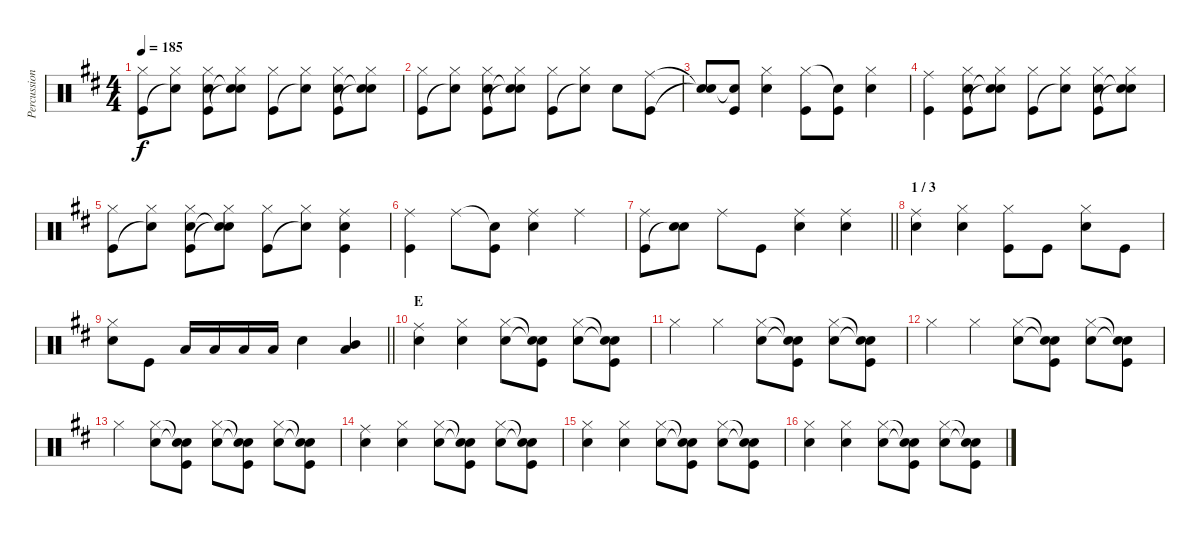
\track ("Percussion" "Percussion") {instrument percussion}
\staff {score}
\articulation defaults
\ts (4 4)
\tempo 185
\clef neutral
\ks d
("Hi-Hat (closed)" "Kick (hit)").8{dy f} ("Hi-Hat (closed)" "Snare (hit)"{t}).8 ("Hi-Hat (closed)" "Snare (hit) 2" "Kick (hit)").8 ("Hi-Hat (closed)" "Snare (hit)"{t} "Snare (hit)"{t}).8 ("Hi-Hat (closed)" "Kick (hit)").8 ("Hi-Hat (closed)" "Snare (hit)"{t}).8 ("Hi-Hat (closed)" "Snare (hit) 2" "Kick (hit)").8 ("Hi-Hat (closed)" "Snare (hit)"{t} "Snare (hit)"{t}).8 |
("Hi-Hat (closed)" "Kick (hit)").8 ("Hi-Hat (closed)" "Snare (hit)"{t}).8 ("Hi-Hat (closed)" "Snare (hit) 2" "Kick (hit)").8 ("Hi-Hat (closed)" "Snare (hit)"{t} "Snare (hit)"{t}).8 ("Hi-Hat (closed)" "Kick (hit)").8 ("Hi-Hat (closed)" "Snare (hit)"{t}).8 "Snare (hit) 2".8 ("Ride (middle)" "Kick (hit)").8 |
("Snare (hit)"{t} "Snare (hit)"{t}).8 ("Snare (hit)"{t} "Kick (hit)").8 ("Hi-Hat (closed)" "Snare (hit) 2").4 ("Hi-Hat (closed)" "Kick (hit)").8 ("Snare (hit)"{t} "Kick (hit)").8 ("Hi-Hat (closed)" "Snare (hit) 2").4 |
("Ride (middle)" "Kick (hit)").4 ("Hi-Hat (closed)" "Snare (hit) 2" "Kick (hit)").8 ("Hi-Hat (closed)" "Snare (hit)"{t} "Snare (hit)"{t}).8 ("Hi-Hat (closed)" "Kick (hit)").8 ("Hi-Hat (closed)" "Snare (hit)"{t}).8 ("Hi-Hat (closed)" "Snare (hit) 2" "Kick (hit)").8 ("Hi-Hat (closed)" "Snare (hit)"{t} "Snare (hit)"{t}).8 |
("Hi-Hat (closed)" "Kick (hit)").8 ("Hi-Hat (closed)" "Snare (hit)"{t}).8 ("Hi-Hat (closed)" "Snare (hit) 2" "Kick (hit)").8 ("Hi-Hat (closed)" "Snare (hit)"{t} "Snare (hit)"{t}).8 ("Hi-Hat (closed)" "Kick (hit)").8 ("Hi-Hat (closed)" "Snare (hit)"{t}).8 ("Ride (middle)" "Snare (hit) 2" "Kick (hit)").4 |
("Ride (middle)" "Kick (hit)").4 "Ride (middle)".8 ("Snare (hit)"{t} "Kick (hit)").8 ("Ride (middle)" "Snare (hit) 2").4 "Ride (middle)".4 |
\barLineRight lightlight
("Ride (middle)" "Kick (hit)").8 ("Snare (hit) 2" "Snare (hit)"{t}).8 "Ride (middle)".8 "Kick (hit)".8 ("Ride (middle)" "Snare (hit) 2").4 ("Ride (middle)" "Snare (hit) 2").4 |
\section ("" "1 / 3")
("Ride (middle)" "Snare (hit) 2").4 ("Hi-Hat (closed)" "Snare (hit) 2").4 ("Hi-Hat (closed)" "Kick (hit)").8 "Kick (hit)".8 ("Hi-Hat (closed)" "Snare (hit) 2").8 "Kick (hit)".8 |
\barLineRight lightlight
("Hi-Hat (closed)" "Snare (hit) 2").8 "Kick (hit)".8 "Low Tom (hit)".16 "Low Tom (hit)".16 "Low Tom (hit)".16 "Low Tom (hit)".16 "Snare (hit) 2".4 ("Low Tom (hit)" "Mid Tom (hit)").4 |
\section ("" "E")
("Ride (middle)" "Snare (hit) 2").4 ("Hi-Hat (closed)" "Snare (hit) 2").4 ("Hi-Hat (closed)" "Snare (hit) 2").8 ("Snare (hit)"{t} "Snare (hit)"{t} "Kick (hit)").8 ("Hi-Hat (closed)" "Snare (hit) 2").8 ("Snare (hit)"{t} "Snare (hit)"{t} "Kick (hit)").8 |
"Hi-Hat (closed)".4 "Hi-Hat (closed)".4 ("Hi-Hat (closed)" "Snare (hit) 2").8 ("Snare (hit)"{t} "Snare (hit)"{t} "Kick (hit)").8 ("Hi-Hat (closed)" "Snare (hit) 2").8 ("Snare (hit)"{t} "Snare (hit)"{t} "Kick (hit)").8 |
"Hi-Hat (closed)".4 "Hi-Hat (closed)".4 ("Hi-Hat (closed)" "Snare (hit) 2").8 ("Snare (hit)"{t} "Snare (hit)"{t} "Kick (hit)").8 ("Hi-Hat (closed)" "Snare (hit) 2").8 ("Snare (hit)"{t} "Snare (hit)"{t} "Kick (hit)").8 |
"Hi-Hat (closed)".4 ("Hi-Hat (closed)" "Snare (hit) 2").8 ("Snare (hit)"{t} "Snare (hit)"{t} "Kick (hit)").8 ("Hi-Hat (closed)" "Snare (hit) 2").8 ("Snare (hit)"{t} "Snare (hit)"{t} "Kick (hit)").8 ("Hi-Hat (closed)" "Snare (hit) 2").8 ("Snare (hit)"{t} "Snare (hit)"{t} "Kick (hit)").8 |
("Ride (middle)" "Snare (hit) 2").4 ("Hi-Hat (closed)" "Snare (hit) 2").4 ("Hi-Hat (closed)" "Snare (hit) 2").8 ("Snare (hit)"{t} "Snare (hit)"{t} "Kick (hit)").8 ("Hi-Hat (closed)" "Snare (hit) 2").8 ("Snare (hit)"{t} "Snare (hit)"{t} "Kick (hit)").8 |
("Hi-Hat (closed)" "Snare (hit) 2").4 ("Hi-Hat (closed)" "Snare (hit) 2").4 ("Hi-Hat (closed)" "Snare (hit) 2").8 ("Snare (hit)"{t} "Snare (hit)"{t} "Kick (hit)").8 ("Hi-Hat (closed)" "Snare (hit) 2").8 ("Snare (hit)"{t} "Snare (hit)"{t} "Kick (hit)").8 |
("Hi-Hat (closed)" "Snare (hit) 2").4 ("Hi-Hat (closed)" "Snare (hit) 2").4 ("Hi-Hat (closed)" "Snare (hit) 2").8 ("Snare (hit)"{t} "Snare (hit)"{t} "Kick (hit)").8 ("Hi-Hat (closed)" "Snare (hit) 2").8 ("Snare (hit)"{t} "Snare (hit)"{t} "Kick (hit)").8
